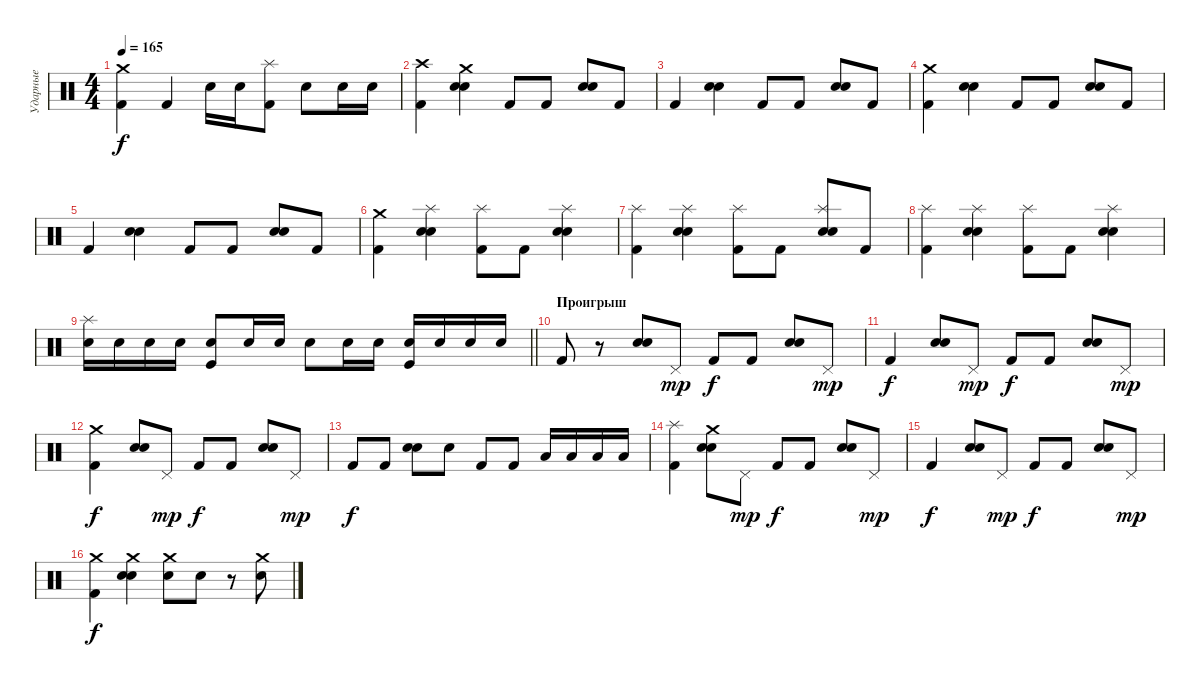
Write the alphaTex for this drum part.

\track ("Ударные" "Ударные") {instrument percussion}
\staff {score}
\articulation defaults
\ts (4 4)
\tempo 165
\clef neutral
\ks c
("Crash medium (hit)" "Kick (hit) 2").4{dy f} "Kick (hit) 2".4 "Electric Snare (hit)".16 "Electric Snare (hit)".16 ("Splash (hit)" "Kick (hit) 2").8 "Electric Snare (hit)".8 "Electric Snare (hit)".16 "Electric Snare (hit)".16 |
("Crash high (hit)" "Kick (hit) 2").4 ("Crash medium (hit)" "Electric Snare (hit)" "Snare (hit) 2").4 "Kick (hit) 2".8 "Kick (hit) 2".8 ("Electric Snare (hit)" "Snare (hit) 2").8 "Kick (hit) 2".8 |
"Kick (hit) 2".4 ("Electric Snare (hit)" "Snare (hit) 2").4 "Kick (hit) 2".8 "Kick (hit) 2".8 ("Electric Snare (hit)" "Snare (hit) 2").8 "Kick (hit) 2".8 |
("Crash medium (hit)" "Kick (hit) 2").4 ("Electric Snare (hit)" "Snare (hit) 2").4 "Kick (hit) 2".8 "Kick (hit) 2".8 ("Electric Snare (hit)" "Snare (hit) 2").8 "Kick (hit) 2".8 |
"Kick (hit) 2".4 ("Electric Snare (hit)" "Snare (hit) 2").4 "Kick (hit) 2".8 "Kick (hit) 2".8 ("Electric Snare (hit)" "Snare (hit) 2").8 "Kick (hit) 2".8 |
("Crash medium (hit)" "Kick (hit) 2").4 ("Splash (hit)" "Electric Snare (hit)" "Snare (hit) 2").4 ("Splash (hit)" "Kick (hit) 2").8 "Kick (hit) 2".8 ("Splash (hit)" "Electric Snare (hit)" "Snare (hit) 2").4 |
("Splash (hit)" "Kick (hit) 2").4 ("Splash (hit)" "Electric Snare (hit)" "Snare (hit) 2").4 ("Splash (hit)" "Kick (hit) 2").8 "Kick (hit) 2".8 ("Splash (hit)" "Electric Snare (hit)" "Snare (hit) 2").8 "Kick (hit) 2".8 |
("Splash (hit)" "Kick (hit) 2").4 ("Splash (hit)" "Electric Snare (hit)" "Snare (hit) 2").4 ("Splash (hit)" "Kick (hit) 2").8 "Kick (hit) 2".8 ("Splash (hit)" "Electric Snare (hit)" "Snare (hit) 2").4 |
\barLineRight lightlight
("Splash (hit)" "Electric Snare (hit)").16 "Electric Snare (hit)".16 "Electric Snare (hit)".16 "Electric Snare (hit)".16 ("Electric Snare (hit)" "Kick (hit)").8 "Electric Snare (hit)".16 "Electric Snare (hit)".16 "Electric Snare (hit)".8 "Electric Snare (hit)".16 "Electric Snare (hit)".16 ("Electric Snare (hit)" "Kick (hit)").16 "Electric Snare (hit)".16 "Electric Snare (hit)".16 "Electric Snare (hit)".16 |
\section ("" "Проигрыш")
"Kick (hit) 2".8 r.8 ("Electric Snare (hit)" "Snare (hit) 2").8 "Pedal Hi-Hat (hit)".8{dy mp} "Kick (hit) 2".8{dy f} "Kick (hit) 2".8 ("Electric Snare (hit)" "Snare (hit) 2").8 "Pedal Hi-Hat (hit)".8{dy mp} |
"Kick (hit) 2".4{dy f} ("Electric Snare (hit)" "Snare (hit) 2").8 "Pedal Hi-Hat (hit)".8{dy mp} "Kick (hit) 2".8{dy f} "Kick (hit) 2".8 ("Electric Snare (hit)" "Snare (hit) 2").8 "Pedal Hi-Hat (hit)".8{dy mp} |
("Crash medium (hit)" "Kick (hit) 2").4{dy f} ("Electric Snare (hit)" "Snare (hit) 2").8 "Pedal Hi-Hat (hit)".8{dy mp} "Kick (hit) 2".8{dy f} "Kick (hit) 2".8 ("Electric Snare (hit)" "Snare (hit) 2").8 "Pedal Hi-Hat (hit)".8{dy mp} |
"Kick (hit) 2".8{dy f} "Kick (hit) 2".8 ("Electric Snare (hit)" "Snare (hit) 2").8 "Electric Snare (hit)".8 "Kick (hit) 2".8 "Kick (hit) 2".8 "Low Tom (hit)".16 "Low Tom (hit)".16 "Low Tom (hit)".16 "Low Tom (hit)".16 |
("Splash (hit)" "Kick (hit) 2").4 ("Crash medium (hit)" "Electric Snare (hit)" "Snare (hit) 2").8 "Pedal Hi-Hat (hit)".8{dy mp} "Kick (hit) 2".8{dy f} "Kick (hit) 2".8 ("Electric Snare (hit)" "Snare (hit) 2").8 "Pedal Hi-Hat (hit)".8{dy mp} |
"Kick (hit) 2".4{dy f} ("Electric Snare (hit)" "Snare (hit) 2").8 "Pedal Hi-Hat (hit)".8{dy mp} "Kick (hit) 2".8{dy f} "Kick (hit) 2".8 ("Electric Snare (hit)" "Snare (hit) 2").8 "Pedal Hi-Hat (hit)".8{dy mp} |
("Crash medium (hit)" "Kick (hit) 2").4{dy f} ("Crash medium (hit)" "Electric Snare (hit)" "Snare (hit) 2").4 ("Crash medium (hit)" "Electric Snare (hit)").8 "Electric Snare (hit)".8 r.8 ("Crash medium (hit)" "Electric Snare (hit)").8
